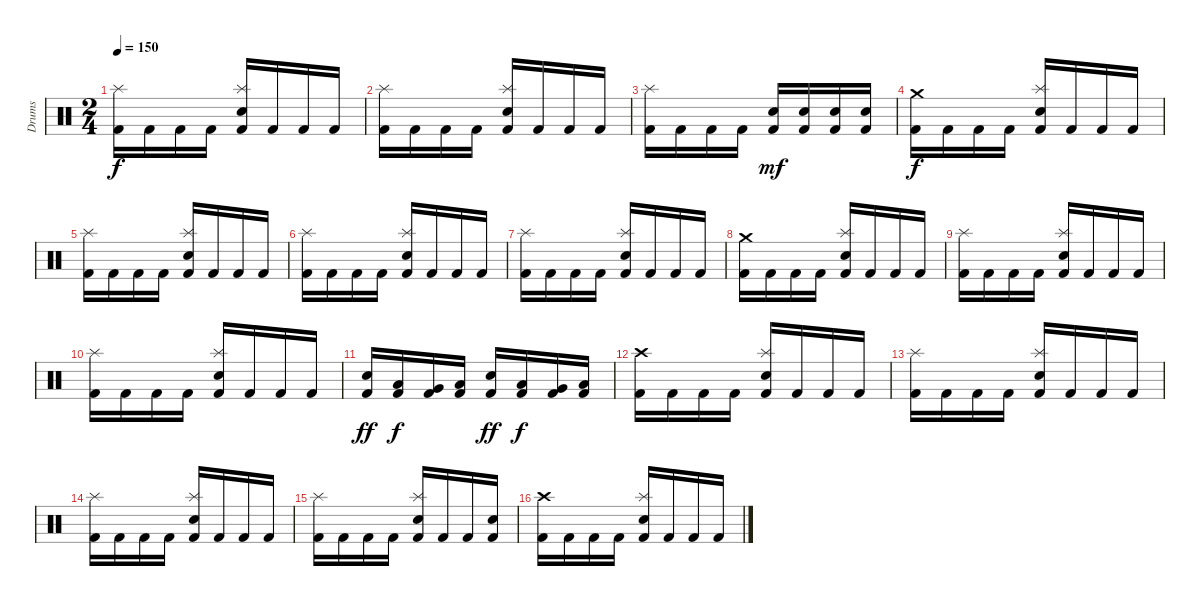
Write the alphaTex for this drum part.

\track ("Drums" "Drums") {instrument percussion}
\staff
\articulation defaults
\ts (2 4)
\tempo 150
\clef neutral
\ks c
("Kick (hit) 2" "Splash (hit)").16{dy f} "Kick (hit) 2".16 "Kick (hit) 2".16 "Kick (hit) 2".16 ("Kick (hit) 2" "Electric Snare (hit)" "Splash (hit)").16 "Kick (hit) 2".16 "Kick (hit) 2".16 "Kick (hit) 2".16 |
("Kick (hit) 2" "Splash (hit)").16 "Kick (hit) 2".16 "Kick (hit) 2".16 "Kick (hit) 2".16 ("Kick (hit) 2" "Electric Snare (hit)" "Splash (hit)").16 "Kick (hit) 2".16 "Kick (hit) 2".16 "Kick (hit) 2".16 |
("Kick (hit) 2" "Splash (hit)").16 "Kick (hit) 2".16 "Kick (hit) 2".16 "Kick (hit) 2".16 ("Kick (hit) 2" "Electric Snare (hit)").16{dy mf} ("Kick (hit) 2" "Electric Snare (hit)").16 ("Kick (hit) 2" "Electric Snare (hit)").16 ("Kick (hit) 2" "Electric Snare (hit)").16 |
("Kick (hit) 2" "Crash medium (hit)").16{dy f} "Kick (hit) 2".16 "Kick (hit) 2".16 "Kick (hit) 2".16 ("Kick (hit) 2" "Electric Snare (hit)" "Splash (hit)").16 "Kick (hit) 2".16 "Kick (hit) 2".16 "Kick (hit) 2".16 |
("Kick (hit) 2" "Splash (hit)").16 "Kick (hit) 2".16 "Kick (hit) 2".16 "Kick (hit) 2".16 ("Kick (hit) 2" "Electric Snare (hit)" "Splash (hit)").16 "Kick (hit) 2".16 "Kick (hit) 2".16 "Kick (hit) 2".16 |
("Kick (hit) 2" "Splash (hit)").16 "Kick (hit) 2".16 "Kick (hit) 2".16 "Kick (hit) 2".16 ("Kick (hit) 2" "Electric Snare (hit)" "Splash (hit)").16 "Kick (hit) 2".16 "Kick (hit) 2".16 "Kick (hit) 2".16 |
("Kick (hit) 2" "Splash (hit)").16 "Kick (hit) 2".16 "Kick (hit) 2".16 "Kick (hit) 2".16 ("Kick (hit) 2" "Electric Snare (hit)" "Splash (hit)").16 "Kick (hit) 2".16 "Kick (hit) 2".16 "Kick (hit) 2".16 |
("Kick (hit) 2" "Crash medium (hit)").16 "Kick (hit) 2".16 "Kick (hit) 2".16 "Kick (hit) 2".16 ("Kick (hit) 2" "Electric Snare (hit)" "Splash (hit)").16 "Kick (hit) 2".16 "Kick (hit) 2".16 "Kick (hit) 2".16 |
("Kick (hit) 2" "Splash (hit)").16 "Kick (hit) 2".16 "Kick (hit) 2".16 "Kick (hit) 2".16 ("Kick (hit) 2" "Electric Snare (hit)" "Splash (hit)").16 "Kick (hit) 2".16 "Kick (hit) 2".16 "Kick (hit) 2".16 |
("Kick (hit) 2" "Splash (hit)").16 "Kick (hit) 2".16 "Kick (hit) 2".16 "Kick (hit) 2".16 ("Kick (hit) 2" "Electric Snare (hit)" "Splash (hit)").16 "Kick (hit) 2".16 "Kick (hit) 2".16 "Kick (hit) 2".16 |
("Kick (hit) 2" "Electric Snare (hit)").16{dy ff} ("Kick (hit) 2" "Low Tom (hit)").16{dy f} ("Kick (hit) 2" "Very Low Tom (hit)").16 ("Kick (hit) 2" "Low Floor Tom (hit)").16 ("Kick (hit) 2" "Electric Snare (hit)").16{dy ff} ("Kick (hit) 2" "Low Tom (hit)").16{dy f} ("Kick (hit) 2" "Very Low Tom (hit)").16 ("Kick (hit) 2" "Low Floor Tom (hit)").16 |
("Kick (hit) 2" "Crash high (hit)").16 "Kick (hit) 2".16 "Kick (hit) 2".16 "Kick (hit) 2".16 ("Kick (hit) 2" "Electric Snare (hit)" "Splash (hit)").16 "Kick (hit) 2".16 "Kick (hit) 2".16 "Kick (hit) 2".16 |
("Kick (hit) 2" "Splash (hit)").16 "Kick (hit) 2".16 "Kick (hit) 2".16 "Kick (hit) 2".16 ("Kick (hit) 2" "Electric Snare (hit)" "Splash (hit)").16 "Kick (hit) 2".16 "Kick (hit) 2".16 "Kick (hit) 2".16 |
("Kick (hit) 2" "Splash (hit)").16 "Kick (hit) 2".16 "Kick (hit) 2".16 "Kick (hit) 2".16 ("Kick (hit) 2" "Electric Snare (hit)" "Splash (hit)").16 "Kick (hit) 2".16 "Kick (hit) 2".16 "Kick (hit) 2".16 |
("Kick (hit) 2" "Splash (hit)").16 "Kick (hit) 2".16 "Kick (hit) 2".16 "Kick (hit) 2".16 ("Kick (hit) 2" "Electric Snare (hit)" "Splash (hit)").16 "Kick (hit) 2".16 "Kick (hit) 2".16 ("Kick (hit) 2" "Electric Snare (hit)").16 |
("Kick (hit) 2" "Crash high (hit)").16 "Kick (hit) 2".16 "Kick (hit) 2".16 "Kick (hit) 2".16 ("Kick (hit) 2" "Electric Snare (hit)" "Splash (hit)").16 "Kick (hit) 2".16 "Kick (hit) 2".16 "Kick (hit) 2".16
